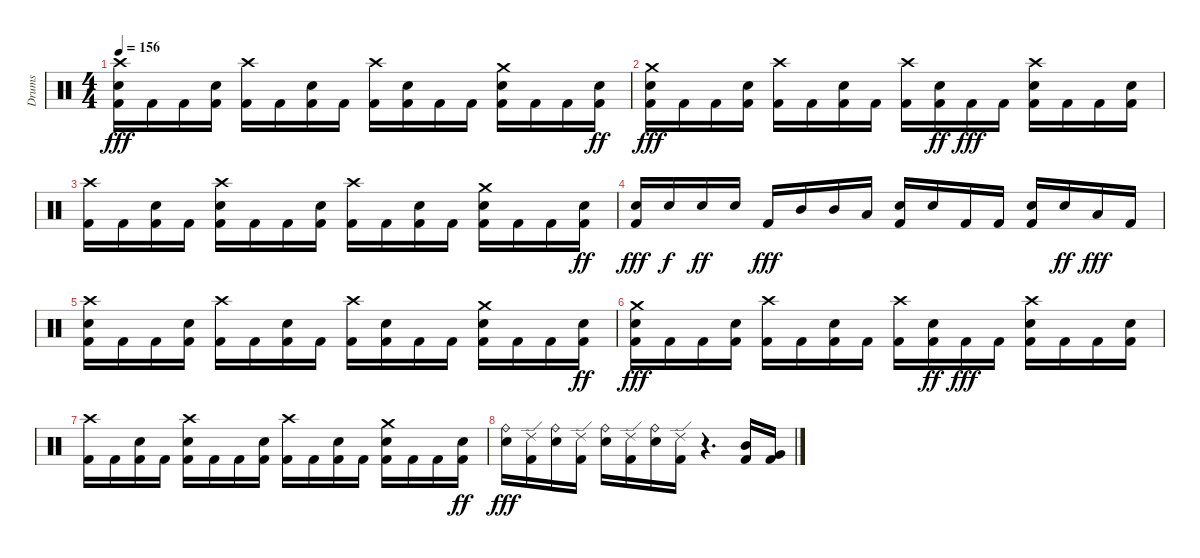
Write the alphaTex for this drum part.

\track ("Drums" "Drums") {instrument percussion}
\staff {score}
\articulation defaults
\ts (4 4)
\tempo 156
\clef neutral
\ks c
("Kick (hit) 2" "Snare (hit) 2" "Crash high (hit)").16{dy fff} "Kick (hit) 2".16 "Kick (hit) 2".16 ("Kick (hit) 2" "Snare (hit) 2").16 ("Kick (hit) 2" "Crash high (hit)").16 "Kick (hit) 2".16 ("Kick (hit) 2" "Snare (hit) 2").16 "Kick (hit) 2".16 ("Kick (hit) 2" "Crash high (hit)").16 ("Kick (hit) 2" "Snare (hit) 2").16 "Kick (hit) 2".16 "Kick (hit) 2".16 ("Kick (hit) 2" "Snare (hit) 2" "Crash medium (hit)").16 "Kick (hit) 2".16 "Kick (hit) 2".16 ("Kick (hit) 2" "Snare (hit) 2").16{dy ff} |
("Kick (hit) 2" "Snare (hit) 2" "Crash medium (hit)").16{dy fff} "Kick (hit) 2".16 "Kick (hit) 2".16 ("Kick (hit) 2" "Snare (hit) 2").16 ("Kick (hit) 2" "Crash high (hit)").16 "Kick (hit) 2".16 ("Kick (hit) 2" "Snare (hit) 2").16 "Kick (hit) 2".16 ("Kick (hit) 2" "Crash high (hit)").16 ("Kick (hit) 2" "Snare (hit) 2").16{dy ff} "Kick (hit) 2".16{dy fff} "Kick (hit) 2".16 ("Kick (hit) 2" "Snare (hit) 2" "Crash high (hit)").16 "Kick (hit) 2".16 "Kick (hit) 2".16 ("Kick (hit) 2" "Snare (hit) 2").16 |
("Kick (hit) 2" "Crash high (hit)").16 "Kick (hit) 2".16 ("Kick (hit) 2" "Snare (hit) 2").16 "Kick (hit) 2".16 ("Kick (hit) 2" "Snare (hit) 2" "Crash high (hit)").16 "Kick (hit) 2".16 "Kick (hit) 2".16 ("Kick (hit) 2" "Snare (hit) 2").16 ("Kick (hit) 2" "Crash high (hit)").16 "Kick (hit) 2".16 ("Kick (hit) 2" "Snare (hit) 2").16 "Kick (hit) 2".16 ("Kick (hit) 2" "Snare (hit) 2" "Crash medium (hit)").16 "Kick (hit) 2".16 "Kick (hit) 2".16 ("Kick (hit) 2" "Snare (hit) 2").16{dy ff} |
("Kick (hit) 2" "Snare (hit) 2").16{dy fff} "Snare (hit) 2".16{dy f} "Snare (hit) 2".16{dy ff} "Snare (hit) 2".16 "Kick (hit) 2".16{dy fff} "Mid Tom (hit)".16 "Mid Tom (hit)".16 "Low Tom (hit)".16 ("Kick (hit) 2" "Snare (hit) 2").16 "Snare (hit) 2".16 "Kick (hit) 2".16 "Kick (hit) 2".16 ("Kick (hit) 2" "Snare (hit) 2").16 "Snare (hit) 2".16{dy ff} "Low Tom (hit)".16{dy fff} "Kick (hit) 2".16 |
("Kick (hit) 2" "Snare (hit) 2" "Crash high (hit)").16 "Kick (hit) 2".16 "Kick (hit) 2".16 ("Kick (hit) 2" "Snare (hit) 2").16 ("Kick (hit) 2" "Crash high (hit)").16 "Kick (hit) 2".16 ("Kick (hit) 2" "Snare (hit) 2").16 "Kick (hit) 2".16 ("Kick (hit) 2" "Crash high (hit)").16 ("Kick (hit) 2" "Snare (hit) 2").16 "Kick (hit) 2".16 "Kick (hit) 2".16 ("Kick (hit) 2" "Snare (hit) 2" "Crash medium (hit)").16 "Kick (hit) 2".16 "Kick (hit) 2".16 ("Kick (hit) 2" "Snare (hit) 2").16{dy ff} |
("Kick (hit) 2" "Snare (hit) 2" "Crash medium (hit)").16{dy fff} "Kick (hit) 2".16 "Kick (hit) 2".16 ("Kick (hit) 2" "Snare (hit) 2").16 ("Kick (hit) 2" "Crash high (hit)").16 "Kick (hit) 2".16 ("Kick (hit) 2" "Snare (hit) 2").16 "Kick (hit) 2".16 ("Kick (hit) 2" "Crash high (hit)").16 ("Kick (hit) 2" "Snare (hit) 2").16{dy ff} "Kick (hit) 2".16{dy fff} "Kick (hit) 2".16 ("Kick (hit) 2" "Snare (hit) 2" "Crash high (hit)").16 "Kick (hit) 2".16 "Kick (hit) 2".16 ("Kick (hit) 2" "Snare (hit) 2").16 |
("Kick (hit) 2" "Crash high (hit)").16 "Kick (hit) 2".16 ("Kick (hit) 2" "Snare (hit) 2").16 "Kick (hit) 2".16 ("Kick (hit) 2" "Snare (hit) 2" "Crash high (hit)").16 "Kick (hit) 2".16 "Kick (hit) 2".16 ("Kick (hit) 2" "Snare (hit) 2").16 ("Kick (hit) 2" "Crash high (hit)").16 "Kick (hit) 2".16 ("Kick (hit) 2" "Snare (hit) 2").16 "Kick (hit) 2".16 ("Kick (hit) 2" "Snare (hit) 2" "Crash medium (hit)").16 "Kick (hit) 2".16 "Kick (hit) 2".16 ("Kick (hit) 2" "Snare (hit) 2").16{dy ff} |
("Snare (hit) 2" "Ride (bell)").16{dy fff} ("Kick (hit) 2" "Ride (edge) 2").16 ("Snare (hit) 2" "Ride (bell)").16 ("Kick (hit) 2" "Ride (edge) 2").16 ("Snare (hit) 2" "Ride (bell)").16 ("Kick (hit) 2" "Ride (edge) 2").16 ("Snare (hit) 2" "Ride (bell)").16 ("Kick (hit) 2" "Ride (edge) 2").16 r.4{d} ("Kick (hit) 2" "Mid Tom (hit)").16 ("Kick (hit) 2" "Very Low Tom (hit)").16
